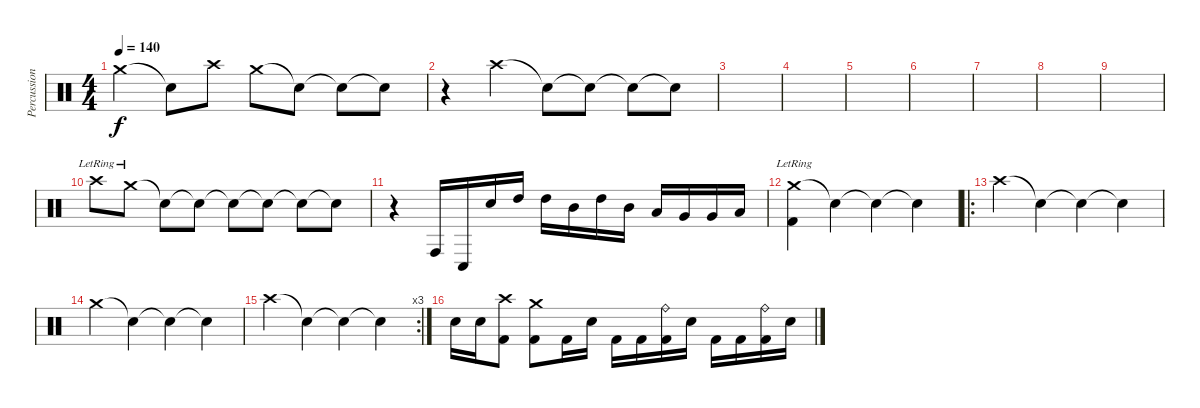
\track ("Percussion" "Percussion") {instrument percussion}
\staff {score}
\articulation defaults
\ts (4 4)
\tempo 140
\clef neutral
\ks c "Crash medium (hit)".4{dy f} "Snare (hit)"{t}.8 "Crash high (hit)".8 "Crash medium (hit)".8 "Snare (hit)"{t}.8 "Snare (hit)"{t}.8 "Snare (hit)"{t}.8
|
r.4 "Crash high (hit)".4 "Snare (hit)"{t}.8 "Snare (hit)"{t}.8 "Snare (hit)"{t}.8 "Snare (hit)"{t}.8 |
|
|
|
|
|
|
|
"Crash high (hit)"{lr}.8 "Crash medium (hit)"{lr}.8 "Snare (hit)"{t}.8 "Snare (hit)"{t}.8 "Snare (hit)"{t}.8 "Snare (hit)"{t}.8 "Snare (hit)"{t}.8 "Snare (hit)"{t}.8 |
r.4 "Conga high (hit)".16 "Conga low (hit)".16 "Electric Snare (hit)".16 "High Tom (hit)".16 "High Tom (hit)".16 "Mid Tom (hit)".16 "High Tom (hit)".16 "Mid Tom (hit)".16 "Low Tom (hit)".16 "Very Low Tom (hit)".16 "Very Low Tom (hit)".16 "Low Floor Tom (hit)".16 |
("Crash medium (hit)"{lr} "Kick (hit) 2").4 "Snare (hit)"{t}.4 "Snare (hit)"{t}.4 "Snare (hit)"{t}.4 |
\ro "Crash high (hit)".4 "Snare (hit)"{t}.4 "Snare (hit)"{t}.4 "Snare (hit)"{t}.4
|
"Crash medium (hit)".4 "Snare (hit)"{t}.4 "Snare (hit)"{t}.4 "Snare (hit)"{t}.4 |
\rc 3 "Crash high (hit)".4 "Snare (hit)"{t}.4 "Snare (hit)"{t}.4 "Snare (hit)"{t}.4
|
"Electric Snare (hit)".16 "Electric Snare (hit)".16 ("Crash high (hit)" "Kick (hit) 2").8 ("Crash medium (hit)" "Kick (hit) 2").8 "Kick (hit) 2".16 "Electric Snare (hit)".16 "Kick (hit) 2".16 "Kick (hit) 2".16 ("Ride (bell)" "Kick (hit) 2").16 "Electric Snare (hit)".16 "Kick (hit) 2".16 "Kick (hit) 2".16 ("Ride (bell)" "Kick (hit) 2").16 "Electric Snare (hit)".16
